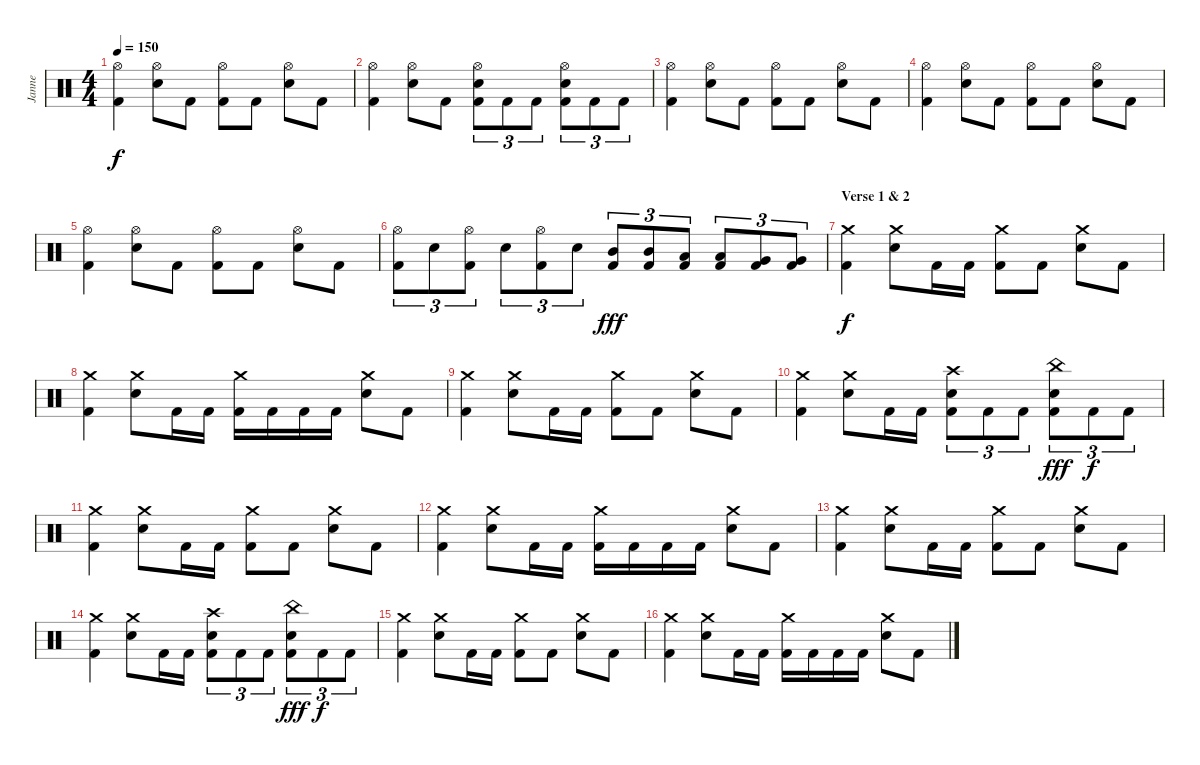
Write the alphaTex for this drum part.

\track ("Janne" "Janne") {instrument percussion}
\staff {score}
\articulation defaults
\ts (4 4)
\tempo 150
\clef neutral
\ks c
("Hi-Hat (open)" "Kick (hit) 2").4{dy f} ("Hi-Hat (open)" "Electric Snare (hit)").8 "Kick (hit) 2".8 ("Hi-Hat (open)" "Kick (hit) 2").8 "Kick (hit) 2".8 ("Hi-Hat (open)" "Electric Snare (hit)").8 "Kick (hit) 2".8 |
("Hi-Hat (open)" "Kick (hit) 2").4 ("Hi-Hat (open)" "Electric Snare (hit)").8 "Kick (hit) 2".8 ("Hi-Hat (open)" "Electric Snare (hit)" "Kick (hit) 2").8{tu (3 2)} "Kick (hit) 2".8{tu (3 2)} "Kick (hit) 2".8{tu (3 2)} ("Hi-Hat (open)" "Electric Snare (hit)" "Kick (hit) 2").8{tu (3 2)} "Kick (hit) 2".8{tu (3 2)} "Kick (hit) 2".8{tu (3 2)} |
("Hi-Hat (open)" "Kick (hit) 2").4 ("Hi-Hat (open)" "Electric Snare (hit)").8 "Kick (hit) 2".8 ("Hi-Hat (open)" "Kick (hit) 2").8 "Kick (hit) 2".8 ("Hi-Hat (open)" "Electric Snare (hit)").8 "Kick (hit) 2".8 |
("Hi-Hat (open)" "Kick (hit) 2").4 ("Hi-Hat (open)" "Electric Snare (hit)").8 "Kick (hit) 2".8 ("Hi-Hat (open)" "Kick (hit) 2").8 "Kick (hit) 2".8 ("Hi-Hat (open)" "Electric Snare (hit)").8 "Kick (hit) 2".8 |
("Hi-Hat (open)" "Kick (hit) 2").4 ("Hi-Hat (open)" "Electric Snare (hit)").8 "Kick (hit) 2".8 ("Hi-Hat (open)" "Kick (hit) 2").8 "Kick (hit) 2".8 ("Hi-Hat (open)" "Electric Snare (hit)").8 "Kick (hit) 2".8 |
("Hi-Hat (open)" "Kick (hit) 2").8{tu (3 2)} "Electric Snare (hit)".8{tu (3 2)} ("Hi-Hat (open)" "Kick (hit) 2").8{tu (3 2)} "Electric Snare (hit)".8{tu (3 2)} ("Hi-Hat (open)" "Kick (hit) 2").8{tu (3 2)} "Electric Snare (hit)".8{tu (3 2)} ("Mid Tom (hit)" "Kick (hit) 2").8{tu (3 2) dy fff} ("Mid Tom (hit)" "Kick (hit) 2").8{tu (3 2)} ("Low Tom (hit)" "Kick (hit) 2").8{tu (3 2)} ("Low Tom (hit)" "Kick (hit) 2").8{tu (3 2)} ("Very Low Tom (hit)" "Kick (hit) 2").8{tu (3 2)} ("Very Low Tom (hit)" "Kick (hit) 2").8{tu (3 2)} |
\section ("" "Verse 1 & 2")
("Crash medium (hit)" "Kick (hit) 2").4{dy f} ("Crash medium (hit)" "Electric Snare (hit)").8 "Kick (hit) 2".16 "Kick (hit) 2".16 ("Crash medium (hit)" "Kick (hit) 2").8 "Kick (hit) 2".8 ("Crash medium (hit)" "Electric Snare (hit)").8 "Kick (hit) 2".8 |
("Crash medium (hit)" "Kick (hit) 2").4 ("Crash medium (hit)" "Electric Snare (hit)").8 "Kick (hit) 2".16 "Kick (hit) 2".16 ("Crash medium (hit)" "Kick (hit) 2").16 "Kick (hit) 2".16 "Kick (hit) 2".16 "Kick (hit) 2".16 ("Crash medium (hit)" "Electric Snare (hit)").8 "Kick (hit) 2".8 |
("Crash medium (hit)" "Kick (hit) 2").4 ("Crash medium (hit)" "Electric Snare (hit)").8 "Kick (hit) 2".16 "Kick (hit) 2".16 ("Crash medium (hit)" "Kick (hit) 2").8 "Kick (hit) 2".8 ("Crash medium (hit)" "Electric Snare (hit)").8 "Kick (hit) 2".8 |
("Crash medium (hit)" "Kick (hit) 2").4 ("Crash medium (hit)" "Electric Snare (hit)").8 "Kick (hit) 2".16 "Kick (hit) 2".16 ("Crash high (hit)" "Electric Snare (hit)" "Kick (hit) 2").8{tu (3 2)} "Kick (hit) 2".8{tu (3 2)} "Kick (hit) 2".8{tu (3 2)} ("China (hit)" "Electric Snare (hit)" "Kick (hit) 2").8{tu (3 2) dy fff} "Kick (hit) 2".8{tu (3 2) dy f} "Kick (hit) 2".8{tu (3 2)} |
("Crash medium (hit)" "Kick (hit) 2").4 ("Crash medium (hit)" "Electric Snare (hit)").8 "Kick (hit) 2".16 "Kick (hit) 2".16 ("Crash medium (hit)" "Kick (hit) 2").8 "Kick (hit) 2".8 ("Crash medium (hit)" "Electric Snare (hit)").8 "Kick (hit) 2".8 |
("Crash medium (hit)" "Kick (hit) 2").4 ("Crash medium (hit)" "Electric Snare (hit)").8 "Kick (hit) 2".16 "Kick (hit) 2".16 ("Crash medium (hit)" "Kick (hit) 2").16 "Kick (hit) 2".16 "Kick (hit) 2".16 "Kick (hit) 2".16 ("Crash medium (hit)" "Electric Snare (hit)").8 "Kick (hit) 2".8 |
("Crash medium (hit)" "Kick (hit) 2").4 ("Crash medium (hit)" "Electric Snare (hit)").8 "Kick (hit) 2".16 "Kick (hit) 2".16 ("Crash medium (hit)" "Kick (hit) 2").8 "Kick (hit) 2".8 ("Crash medium (hit)" "Electric Snare (hit)").8 "Kick (hit) 2".8 |
("Crash medium (hit)" "Kick (hit) 2").4 ("Crash medium (hit)" "Electric Snare (hit)").8 "Kick (hit) 2".16 "Kick (hit) 2".16 ("Crash high (hit)" "Electric Snare (hit)" "Kick (hit) 2").8{tu (3 2)} "Kick (hit) 2".8{tu (3 2)} "Kick (hit) 2".8{tu (3 2)} ("China (hit)" "Electric Snare (hit)" "Kick (hit) 2").8{tu (3 2) dy fff} "Kick (hit) 2".8{tu (3 2) dy f} "Kick (hit) 2".8{tu (3 2)} |
("Crash medium (hit)" "Kick (hit) 2").4 ("Crash medium (hit)" "Electric Snare (hit)").8 "Kick (hit) 2".16 "Kick (hit) 2".16 ("Crash medium (hit)" "Kick (hit) 2").8 "Kick (hit) 2".8 ("Crash medium (hit)" "Electric Snare (hit)").8 "Kick (hit) 2".8 |
("Crash medium (hit)" "Kick (hit) 2").4 ("Crash medium (hit)" "Electric Snare (hit)").8 "Kick (hit) 2".16 "Kick (hit) 2".16 ("Crash medium (hit)" "Kick (hit) 2").16 "Kick (hit) 2".16 "Kick (hit) 2".16 "Kick (hit) 2".16 ("Crash medium (hit)" "Electric Snare (hit)").8 "Kick (hit) 2".8
